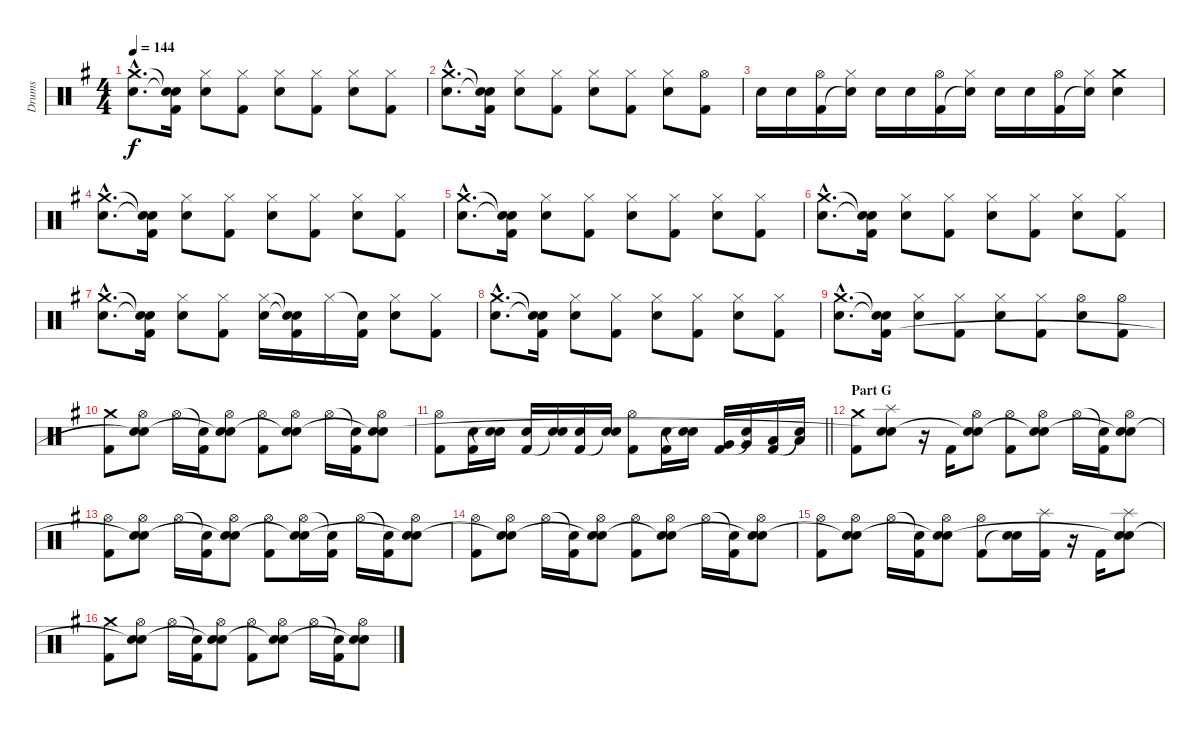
\track ("Drums" "Drums") {instrument percussion}
\staff {score}
\articulation defaults
\ts (4 4)
\tempo 144
\clef neutral
\ks g
("Crash medium (hit)"{hac} "Electric Snare (hit)"{hac}).8{d dy f} ("Snare (hit)"{t} "Snare (hit)"{t} "Kick (hit) 2").16 ("Hi-Hat (closed)" "Electric Snare (hit)").8 ("Hi-Hat (closed)" "Kick (hit) 2").8 ("Hi-Hat (closed)" "Electric Snare (hit)").8 ("Hi-Hat (closed)" "Kick (hit) 2").8 ("Hi-Hat (closed)" "Electric Snare (hit)").8 ("Hi-Hat (closed)" "Kick (hit) 2").8 |
("Crash medium (hit)"{hac} "Electric Snare (hit)"{hac}).8{d} ("Snare (hit)"{t} "Snare (hit)"{t} "Kick (hit) 2").16 ("Hi-Hat (closed)" "Electric Snare (hit)").8 ("Hi-Hat (closed)" "Kick (hit) 2").8 ("Hi-Hat (closed)" "Electric Snare (hit)").8 ("Hi-Hat (closed)" "Kick (hit) 2").8 ("Hi-Hat (closed)" "Electric Snare (hit)").8 ("Hi-Hat (open)" "Kick (hit) 2").8 |
"Electric Snare (hit)".16 "Electric Snare (hit)".16 ("Hi-Hat (open)" "Kick (hit) 2").16 ("Hi-Hat (closed)" "Snare (hit)"{t}).16 "Electric Snare (hit)".16 "Electric Snare (hit)".16 ("Hi-Hat (open)" "Kick (hit) 2").16 ("Hi-Hat (closed)" "Snare (hit)"{t}).16 "Electric Snare (hit)".16 "Electric Snare (hit)".16 ("Hi-Hat (open)" "Kick (hit) 2").16 ("Hi-Hat (closed)" "Snare (hit)"{t}).16 ("Crash medium (hit)" "Electric Snare (hit)").4 |
("Crash medium (hit)"{hac} "Electric Snare (hit)"{hac}).8{d} ("Snare (hit)"{t} "Snare (hit)"{t} "Kick (hit) 2").16 ("Hi-Hat (closed)" "Electric Snare (hit)").8 ("Hi-Hat (closed)" "Kick (hit) 2").8 ("Hi-Hat (closed)" "Electric Snare (hit)").8 ("Hi-Hat (closed)" "Kick (hit) 2").8 ("Hi-Hat (closed)" "Electric Snare (hit)").8 ("Hi-Hat (closed)" "Kick (hit) 2").8 |
("Crash medium (hit)"{hac} "Electric Snare (hit)"{hac}).8{d} ("Snare (hit)"{t} "Snare (hit)"{t} "Kick (hit) 2").16 ("Hi-Hat (closed)" "Electric Snare (hit)").8 ("Hi-Hat (closed)" "Kick (hit) 2").8 ("Hi-Hat (closed)" "Electric Snare (hit)").8 ("Hi-Hat (closed)" "Kick (hit) 2").8 ("Hi-Hat (closed)" "Electric Snare (hit)").8 ("Hi-Hat (closed)" "Kick (hit) 2").8 |
("Crash medium (hit)"{hac} "Electric Snare (hit)"{hac}).8{d} ("Snare (hit)"{t} "Snare (hit)"{t} "Kick (hit) 2").16 ("Hi-Hat (closed)" "Electric Snare (hit)").8 ("Hi-Hat (closed)" "Kick (hit) 2").8 ("Hi-Hat (closed)" "Electric Snare (hit)").8 ("Hi-Hat (closed)" "Kick (hit) 2").8 ("Hi-Hat (closed)" "Electric Snare (hit)").8 ("Hi-Hat (closed)" "Kick (hit) 2").8 |
("Crash medium (hit)"{hac} "Electric Snare (hit)"{hac}).8{d} ("Snare (hit)"{t} "Snare (hit)"{t} "Kick (hit) 2").16 ("Hi-Hat (closed)" "Electric Snare (hit)").8 ("Hi-Hat (closed)" "Kick (hit) 2").8 ("Hi-Hat (closed)" "Electric Snare (hit)").16 ("Snare (hit)"{t} "Snare (hit)"{t} "Kick (hit) 2").16 "Hi-Hat (closed)".16 ("Snare (hit)"{t} "Kick (hit) 2").16 ("Hi-Hat (closed)" "Electric Snare (hit)").8 ("Hi-Hat (closed)" "Kick (hit) 2").8 |
("Crash medium (hit)"{hac} "Electric Snare (hit)"{hac}).8{d} ("Snare (hit)"{t} "Snare (hit)"{t} "Kick (hit) 2").16 ("Hi-Hat (closed)" "Electric Snare (hit)").8 ("Hi-Hat (closed)" "Kick (hit) 2").8 ("Hi-Hat (closed)" "Electric Snare (hit)").8 ("Hi-Hat (closed)" "Kick (hit) 2").8 ("Hi-Hat (closed)" "Electric Snare (hit)").8 ("Hi-Hat (closed)" "Kick (hit) 2").8 |
("Crash medium (hit)"{hac} "Electric Snare (hit)"{hac}).8{d} ("Snare (hit)"{t} "Snare (hit)"{t} "Kick (hit) 2").16 ("Hi-Hat (closed)" "Electric Snare (hit)").8 ("Hi-Hat (closed)" "Kick (hit) 2").8 ("Hi-Hat (closed)" "Electric Snare (hit)").8 ("Hi-Hat (closed)" "Kick (hit) 2").8 ("Hi-Hat (open)" "Electric Snare (hit)").8 ("Hi-Hat (open)" "Kick (hit) 2").8 |
("Crash medium (hit)" "Kick (hit) 2").8 ("Hi-Hat (open)" "Electric Snare (hit)" "Snare (hit)"{t}).8 "Hi-Hat (open)".16 ("Snare (hit)"{t} "Kick (hit) 2").16 ("Hi-Hat (open)" "Electric Snare (hit)" "Snare (hit)"{t}).8 ("Hi-Hat (open)" "Kick (hit) 2").8 ("Hi-Hat (open)" "Electric Snare (hit)" "Snare (hit)"{t}).8 "Hi-Hat (open)".16 ("Snare (hit)"{t} "Kick (hit) 2").16 ("Hi-Hat (open)" "Electric Snare (hit)" "Snare (hit)"{t}).8 |
\barLineRight lightlight
("Hi-Hat (open)" "Kick (hit) 2").8 ("Electric Snare (hit)" "Kick (hit) 2").16 ("Electric Snare (hit)" "Snare (hit)"{t}).16 ("Electric Snare (hit)" "Kick (hit) 2").16 ("Electric Snare (hit)" "Snare (hit)"{t}).16 ("Electric Snare (hit)" "Kick (hit) 2").16 ("Electric Snare (hit)" "Snare (hit)"{t}).16 ("Hi-Hat (open)" "Kick (hit) 2").8 ("Electric Snare (hit)" "Kick (hit) 2").16 ("Electric Snare (hit)" "Snare (hit)"{t}).16 ("Very Low Tom (hit)" "Kick (hit) 2").16 ("Very Low Tom (hit)" "Snare (hit)"{t}).16 ("Low Floor Tom (hit)" "Kick (hit) 2").16 ("Low Floor Tom (hit)" "Snare (hit)"{t}).16 |
\section ("" "Part G")
("Crash medium (hit)" "Kick (hit) 2").8 ("Splash (hit)" "Electric Snare (hit)" "Snare (hit)"{t}).8 r.16 "Kick (hit) 2".16 ("Hi-Hat (open)" "Electric Snare (hit)" "Snare (hit)"{t}).8 ("Hi-Hat (open)" "Kick (hit) 2").8 ("Hi-Hat (open)" "Electric Snare (hit)" "Snare (hit)"{t}).8 "Hi-Hat (open)".16 ("Snare (hit)"{t} "Kick (hit) 2").16 ("Hi-Hat (open)" "Electric Snare (hit)" "Snare (hit)"{t}).8 |
("Hi-Hat (open)" "Kick (hit) 2").8 ("Hi-Hat (open)" "Electric Snare (hit)" "Snare (hit)"{t}).8 "Hi-Hat (open)".16 ("Snare (hit)"{t} "Kick (hit) 2").16 ("Hi-Hat (open)" "Electric Snare (hit)" "Snare (hit)"{t}).8 ("Hi-Hat (open)" "Kick (hit) 2").8 ("Hi-Hat (open)" "Electric Snare (hit)" "Snare (hit)"{t}).16 ("Snare (hit)"{t} "Kick (hit) 2").16 "Hi-Hat (open)".16 ("Snare (hit)"{t} "Kick (hit) 2").16 ("Hi-Hat (open)" "Electric Snare (hit)" "Snare (hit)"{t}).8 |
("Hi-Hat (open)" "Kick (hit) 2").8 ("Hi-Hat (open)" "Electric Snare (hit)" "Snare (hit)"{t}).8 "Hi-Hat (open)".16 ("Snare (hit)"{t} "Kick (hit) 2").16 ("Hi-Hat (open)" "Electric Snare (hit)" "Snare (hit)"{t}).8 ("Hi-Hat (open)" "Kick (hit) 2").8 ("Hi-Hat (open)" "Electric Snare (hit)" "Snare (hit)"{t}).8 "Hi-Hat (open)".16 ("Snare (hit)"{t} "Kick (hit) 2").16 ("Hi-Hat (open)" "Electric Snare (hit)" "Snare (hit)"{t}).8 |
("Hi-Hat (open)" "Kick (hit) 2").8 ("Hi-Hat (open)" "Electric Snare (hit)" "Snare (hit)"{t}).8 "Hi-Hat (open)".16 ("Snare (hit)"{t} "Kick (hit) 2").16 ("Hi-Hat (open)" "Electric Snare (hit)" "Snare (hit)"{t}).8 ("Hi-Hat (open)" "Kick (hit) 2").8 ("Electric Snare (hit)" "Snare (hit)"{t}).16 ("Splash (hit)" "Kick (hit) 2").16 r.16 "Kick (hit) 2".16 ("Splash (hit)" "Electric Snare (hit)" "Snare (hit)"{t}).8 |
("Crash medium (hit)" "Kick (hit) 2").8 ("Hi-Hat (open)" "Electric Snare (hit)" "Snare (hit)"{t}).8 "Hi-Hat (open)".16 ("Snare (hit)"{t} "Kick (hit) 2").16 ("Hi-Hat (open)" "Electric Snare (hit)" "Snare (hit)"{t}).8 ("Hi-Hat (open)" "Kick (hit) 2").8 ("Hi-Hat (open)" "Electric Snare (hit)" "Snare (hit)"{t}).8 "Hi-Hat (open)".16 ("Snare (hit)"{t} "Kick (hit) 2").16 ("Hi-Hat (open)" "Electric Snare (hit)" "Snare (hit)"{t}).8
